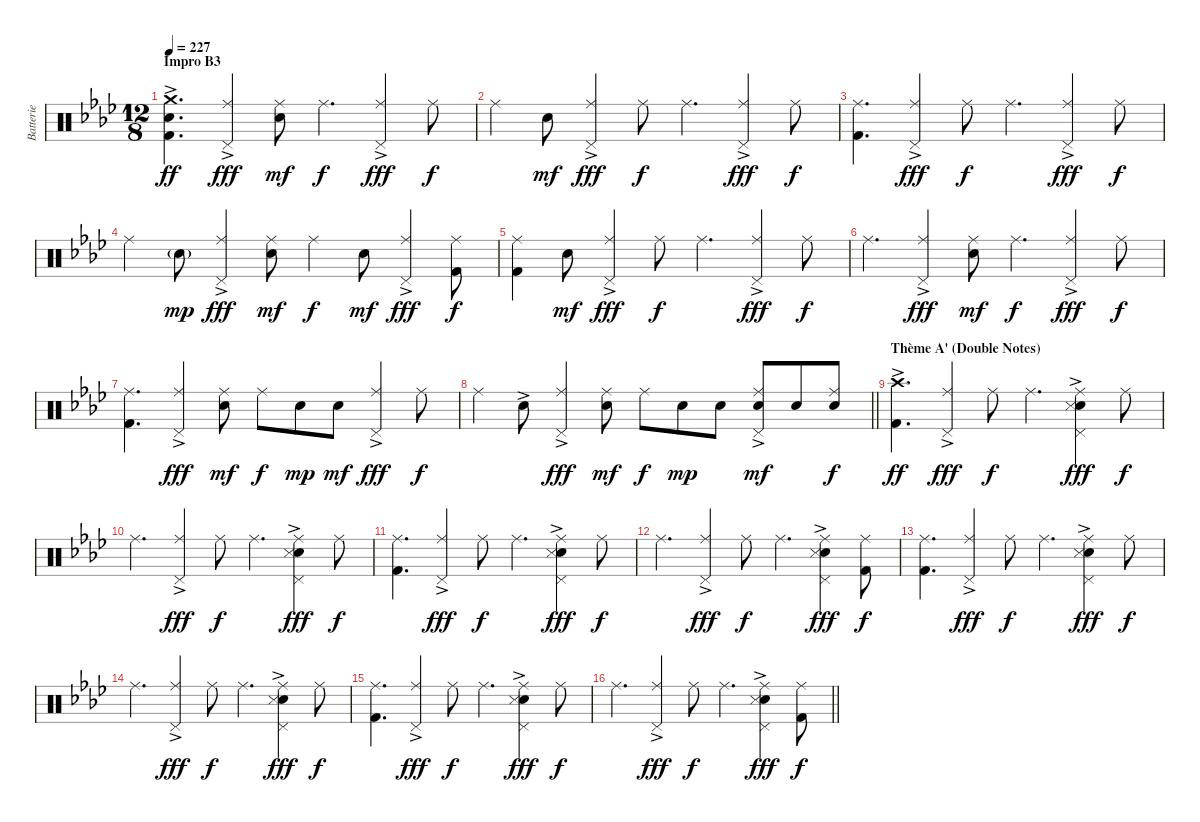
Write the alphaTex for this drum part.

\track ("Batterie" "Batterie") {instrument percussion}
\staff {score}
\articulation defaults
\ts (12 8)
\section ("" "Impro B3")
\tempo 227
\clef neutral
\ks fminor
("Crash medium (hit)"{ac} "Snare (hit) 2" "Kick (hit) 2").4{d dy ff volume 11 balance 8} ("Ride (middle)" "Pedal Hi-Hat (hit)"{ac}).4{dy fff} ("Ride (middle)" "Snare (hit) 2").8{dy mf} "Ride (middle)".4{d dy f} ("Ride (middle)" "Pedal Hi-Hat (hit)"{ac}).4{dy fff} "Ride (middle)".8{dy f} |
"Ride (middle)".4 "Snare (hit) 2".8{dy mf} ("Ride (middle)" "Pedal Hi-Hat (hit)"{ac}).4{dy fff} "Ride (middle)".8{dy f} "Ride (middle)".4{d} ("Ride (middle)" "Pedal Hi-Hat (hit)"{ac}).4{dy fff} "Ride (middle)".8{dy f} |
("Ride (middle)" "Kick (hit) 2").4{d} ("Ride (middle)" "Pedal Hi-Hat (hit)"{ac}).4{dy fff} "Ride (middle)".8{dy f} "Ride (middle)".4{d} ("Ride (middle)" "Pedal Hi-Hat (hit)"{ac}).4{dy fff} "Ride (middle)".8{dy f} |
"Ride (middle)".4 "Snare (hit) 2"{g}.8{dy mp} ("Ride (middle)" "Pedal Hi-Hat (hit)"{ac}).4{dy fff} ("Ride (middle)" "Snare (hit) 2").8{dy mf} "Ride (middle)".4{dy f} "Snare (hit) 2".8{dy mf} ("Ride (middle)" "Pedal Hi-Hat (hit)"{ac}).4{dy fff} ("Ride (middle)" "Kick (hit) 2").8{dy f} |
("Ride (middle)" "Kick (hit) 2").4 "Snare (hit) 2".8{dy mf} ("Ride (middle)" "Pedal Hi-Hat (hit)"{ac}).4{dy fff} "Ride (middle)".8{dy f} "Ride (middle)".4{d} ("Ride (middle)" "Pedal Hi-Hat (hit)"{ac}).4{dy fff} "Ride (middle)".8{dy f} |
"Ride (middle)".4{d} ("Ride (middle)" "Pedal Hi-Hat (hit)"{ac}).4{dy fff} ("Ride (middle)" "Snare (hit) 2").8{dy mf} "Ride (middle)".4{d dy f} ("Ride (middle)" "Pedal Hi-Hat (hit)"{ac}).4{dy fff} "Ride (middle)".8{dy f} |
("Ride (middle)" "Kick (hit) 2").4{d} ("Ride (middle)" "Pedal Hi-Hat (hit)"{ac}).4{dy fff} ("Ride (middle)" "Snare (hit) 2").8{dy mf} "Ride (middle)".8{dy f} "Snare (hit) 2".8{dy mp} "Snare (hit) 2".8{dy mf} ("Ride (middle)" "Pedal Hi-Hat (hit)"{ac}).4{dy fff} "Ride (middle)".8{dy f} |
\barLineRight lightlight "Ride (middle)".4 "Snare (hit) 2"{ac}.8
("Ride (middle)" "Pedal Hi-Hat (hit)"{ac}).4{dy fff} ("Ride (middle)" "Snare (hit) 2").8{dy mf} "Ride (middle)".8{dy f} "Snare (hit) 2".8{dy mp} "Snare (hit) 2".8 ("Ride (middle)" "Pedal Hi-Hat (hit)"{ac} "Snare (hit) 2").8{dy mf} "Snare (hit) 2".8 ("Ride (middle)" "Snare (hit) 2").8{dy f} |
\section ("" "Thème A' (Double Notes)")
("Crash high (hit)"{ac} "Kick (hit) 2").4{d dy ff volume 12 balance 8} ("Ride (middle)" "Pedal Hi-Hat (hit)"{ac}).4{dy fff} "Ride (middle)".8{dy f} "Ride (middle)".4{d} ("Ride (middle)" "Pedal Hi-Hat (hit)"{ac} "Snare (hit) 2"{ac} "Snare (side stick) 3"{ac}).4{dy fff} "Ride (middle)".8{dy f} |
"Ride (middle)".4{d} ("Ride (middle)" "Pedal Hi-Hat (hit)"{ac}).4{dy fff} "Ride (middle)".8{dy f} "Ride (middle)".4{d} ("Ride (middle)" "Pedal Hi-Hat (hit)"{ac} "Snare (hit) 2"{ac} "Snare (side stick) 3"{ac}).4{dy fff} "Ride (middle)".8{dy f} |
("Ride (middle)" "Kick (hit) 2").4{d} ("Ride (middle)" "Pedal Hi-Hat (hit)"{ac}).4{dy fff} "Ride (middle)".8{dy f} "Ride (middle)".4{d} ("Ride (middle)" "Pedal Hi-Hat (hit)"{ac} "Snare (hit) 2"{ac} "Snare (side stick) 3"{ac}).4{dy fff} "Ride (middle)".8{dy f} |
"Ride (middle)".4{d} ("Ride (middle)" "Pedal Hi-Hat (hit)"{ac}).4{dy fff} "Ride (middle)".8{dy f} "Ride (middle)".4{d} ("Ride (middle)" "Pedal Hi-Hat (hit)"{ac} "Snare (hit) 2"{ac} "Snare (side stick) 3"{ac}).4{dy fff} ("Ride (middle)" "Kick (hit) 2").8{dy f} |
("Ride (middle)" "Kick (hit) 2").4{d} ("Ride (middle)" "Pedal Hi-Hat (hit)"{ac}).4{dy fff} "Ride (middle)".8{dy f} "Ride (middle)".4{d} ("Ride (middle)" "Pedal Hi-Hat (hit)"{ac} "Snare (hit) 2"{ac} "Snare (side stick) 3"{ac}).4{dy fff} "Ride (middle)".8{dy f} |
"Ride (middle)".4{d} ("Ride (middle)" "Pedal Hi-Hat (hit)"{ac}).4{dy fff} "Ride (middle)".8{dy f} "Ride (middle)".4{d} ("Ride (middle)" "Pedal Hi-Hat (hit)"{ac} "Snare (hit) 2"{ac} "Snare (side stick) 3"{ac}).4{dy fff} "Ride (middle)".8{dy f} |
("Ride (middle)" "Kick (hit) 2").4{d} ("Ride (middle)" "Pedal Hi-Hat (hit)"{ac}).4{dy fff} "Ride (middle)".8{dy f} "Ride (middle)".4{d} ("Ride (middle)" "Pedal Hi-Hat (hit)"{ac} "Snare (hit) 2"{ac} "Snare (side stick) 3"{ac}).4{dy fff} "Ride (middle)".8{dy f} |
\barLineRight lightlight "Ride (middle)".4{d}
("Ride (middle)" "Pedal Hi-Hat (hit)"{ac}).4{dy fff} "Ride (middle)".8{dy f} "Ride (middle)".4{d} ("Ride (middle)" "Pedal Hi-Hat (hit)"{ac} "Snare (hit) 2"{ac} "Snare (side stick) 3"{ac}).4{dy fff} ("Ride (middle)" "Kick (hit) 2").8{dy f}
